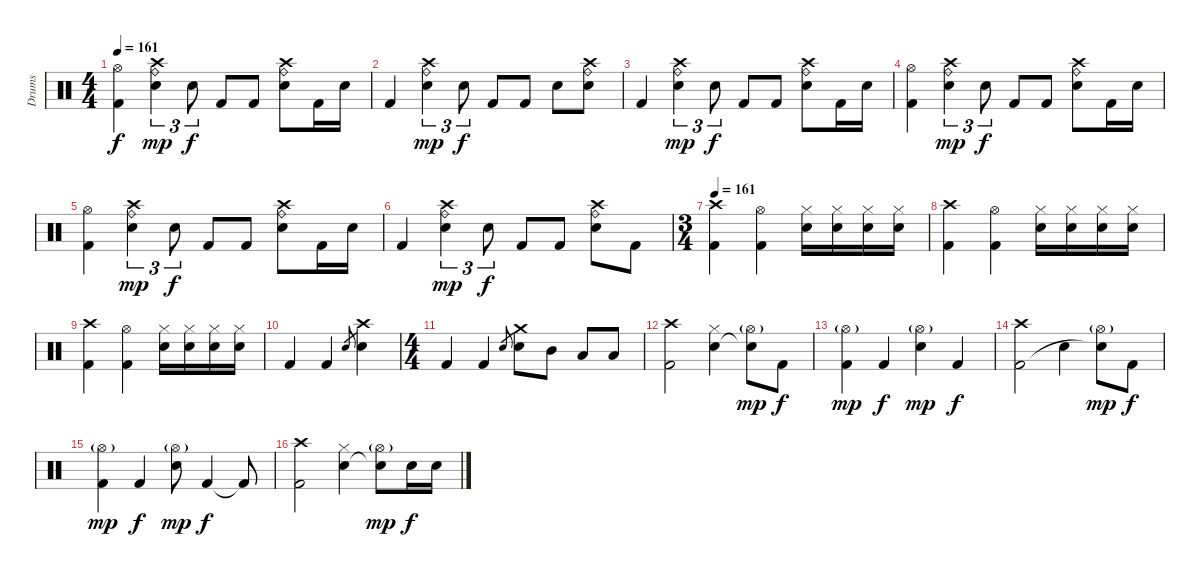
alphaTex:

\track ("Drums" "Drums") {instrument percussion}
\staff {score}
\articulation defaults
\ts (4 4)
\tempo 161
\clef neutral
\ks c
("Kick (hit) 2" "Hi-Hat (open)").4{dy f} ("Crash high (hit)" "Electric Snare (hit)" "Ride (bell)").4{tu (3 2) dy mp} "Electric Snare (hit)".8{tu (3 2) dy f} "Kick (hit) 2".8 "Kick (hit) 2".8 ("Ride (bell)" "Crash high (hit)" "Electric Snare (hit)").8 "Kick (hit) 2".16 "Electric Snare (hit)".16 |
"Kick (hit) 2".4 ("Crash high (hit)" "Electric Snare (hit)" "Ride (bell)").4{tu (3 2) dy mp} "Electric Snare (hit)".8{tu (3 2) dy f} "Kick (hit) 2".8 "Kick (hit) 2".8 "Electric Snare (hit)".8 ("Ride (bell)" "Crash high (hit)" "Electric Snare (hit)").8 |
"Kick (hit) 2".4 ("Crash high (hit)" "Electric Snare (hit)" "Ride (bell)").4{tu (3 2) dy mp} "Electric Snare (hit)".8{tu (3 2) dy f} "Kick (hit) 2".8 "Kick (hit) 2".8 ("Ride (bell)" "Crash high (hit)" "Electric Snare (hit)").8 "Kick (hit) 2".16 "Electric Snare (hit)".16 |
("Kick (hit) 2" "Hi-Hat (open)").4 ("Crash high (hit)" "Electric Snare (hit)" "Ride (bell)").4{tu (3 2) dy mp} "Electric Snare (hit)".8{tu (3 2) dy f} "Kick (hit) 2".8 "Kick (hit) 2".8 ("Ride (bell)" "Crash high (hit)" "Electric Snare (hit)").8 "Kick (hit) 2".16 "Electric Snare (hit)".16 |
("Kick (hit) 2" "Hi-Hat (open)").4 ("Crash high (hit)" "Electric Snare (hit)" "Ride (bell)").4{tu (3 2) dy mp} "Electric Snare (hit)".8{tu (3 2) dy f} "Kick (hit) 2".8 "Kick (hit) 2".8 ("Ride (bell)" "Crash high (hit)" "Electric Snare (hit)").8 "Kick (hit) 2".16 "Electric Snare (hit)".16 |
"Kick (hit) 2".4 ("Crash high (hit)" "Electric Snare (hit)" "Ride (bell)").4{tu (3 2) dy mp} "Electric Snare (hit)".8{tu (3 2) dy f} "Kick (hit) 2".8 "Kick (hit) 2".8 ("Ride (bell)" "Crash high (hit)" "Electric Snare (hit)").8 "Kick (hit) 2".8 |
\ts (3 4)
\tempo 161
("Kick (hit) 2" "Crash high (hit)").4 ("Kick (hit) 2" "Hi-Hat (open)").4 ("Hi-Hat (closed)" "Electric Snare (hit)").16 ("Hi-Hat (closed)" "Electric Snare (hit)").16 ("Hi-Hat (closed)" "Electric Snare (hit)").16 ("Hi-Hat (closed)" "Electric Snare (hit)").16 |
("Kick (hit) 2" "Crash high (hit)").4 ("Kick (hit) 2" "Hi-Hat (open)").4 ("Hi-Hat (closed)" "Electric Snare (hit)").16 ("Hi-Hat (closed)" "Electric Snare (hit)").16 ("Hi-Hat (closed)" "Electric Snare (hit)").16 ("Hi-Hat (closed)" "Electric Snare (hit)").16 |
("Kick (hit) 2" "Crash high (hit)").4 ("Kick (hit) 2" "Hi-Hat (open)").4 ("Hi-Hat (closed)" "Electric Snare (hit)").16 ("Hi-Hat (closed)" "Electric Snare (hit)").16 ("Hi-Hat (closed)" "Electric Snare (hit)").16 ("Hi-Hat (closed)" "Electric Snare (hit)").16 |
"Kick (hit) 2".4 "Kick (hit) 2".4 "Electric Snare (hit)".8{gr} ("Electric Snare (hit)" "Crash high (hit)").4 |
\ts (4 4)
"Kick (hit) 2".4 "Kick (hit) 2".4 "Electric Snare (hit)".8{gr} ("Electric Snare (hit)" "Crash medium (hit)").8 "Mid Tom (hit)".8 "Low Tom (hit)".8 "Low Floor Tom (hit)".8 |
("Crash high (hit)" "Kick (hit) 2").2 ("Hi-Hat (closed)" "Electric Snare (hit)").4 ("Hi-Hat (open)"{g} "Snare (hit)"{t}).8{dy mp} "Kick (hit) 2".8{dy f} |
("Hi-Hat (open)"{g} "Kick (hit) 2").4{dy mp} "Kick (hit) 2".4{dy f} ("Hi-Hat (open)"{g} "Electric Snare (hit)").4{dy mp} "Kick (hit) 2".4{dy f} |
("Crash high (hit)" "Kick (hit) 2").2 "Electric Snare (hit)".4 ("Hi-Hat (open)"{g} "Snare (hit)"{t}).8{dy mp} "Kick (hit) 2".8{dy f} |
("Hi-Hat (open)"{g} "Kick (hit) 2").4{dy mp} "Kick (hit) 2".4{dy f} ("Hi-Hat (open)"{g} "Electric Snare (hit)").8{dy mp} "Kick (hit) 2".4{dy f} "Kick (hit) 2"{t}.8 |
("Crash high (hit)" "Kick (hit) 2").2 ("Hi-Hat (closed)" "Electric Snare (hit)").4 ("Hi-Hat (open)"{g} "Snare (hit)"{t}).8{dy mp} "Electric Snare (hit)".16{dy f} "Electric Snare (hit)".16
